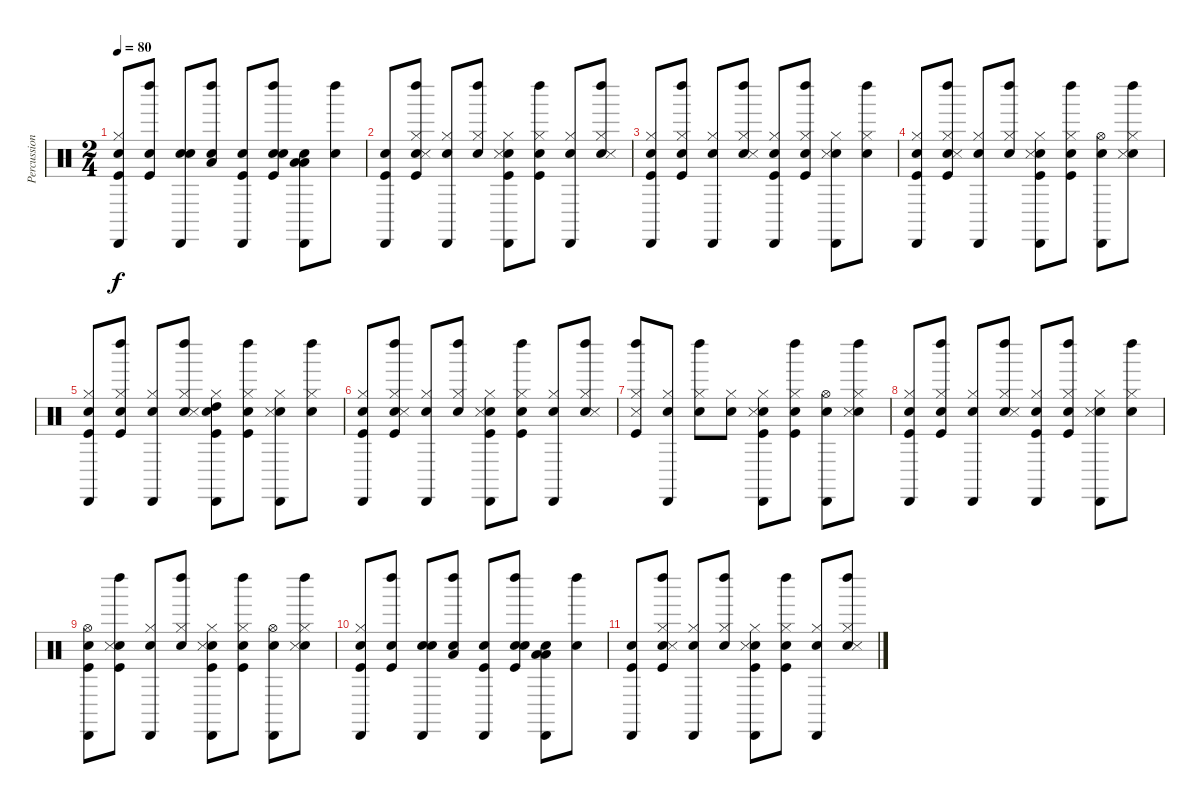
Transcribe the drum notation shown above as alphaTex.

\track ("Percussions" "Percussion") {instrument percussion}
\staff {score}
\articulation defaults
\ts (2 4)
\tempo 80
\clef neutral
\ks c
("Snare (hit)" "Kick (hit)" "Hi-Hat (closed)" "Cabasa (hit)").8{dy f} ("Snare (hit)" "Kick (hit)" "Left Maraca (hit)").8 ("Snare (hit)" "Snare (hit) 2" "Cabasa (hit)").8 ("Snare (hit)" "Low Tom (hit)" "Left Maraca (hit)").8 ("Snare (hit)" "Kick (hit)" "Cabasa (hit)").8 ("Snare (hit)" "Kick (hit)" "Snare (hit) 2" "Left Maraca (hit)").8 ("Snare (hit)" "Low Floor Tom (hit)" "Low Tom (hit)" "Cabasa (hit)").8 ("Snare (hit)" "Left Maraca (hit)").8 |
("Snare (hit)" "Kick (hit)" "Cabasa (hit)").8 ("Snare (hit)" "Kick (hit)" "Hi-Hat (closed)" "Snare (side stick) 3" "Left Maraca (hit)").8 ("Snare (hit)" "Hi-Hat (closed)" "Cabasa (hit)").8 ("Snare (hit)" "Hi-Hat (closed)" "Left Maraca (hit)").8 ("Snare (hit)" "Kick (hit)" "Hi-Hat (closed)" "Snare (side stick) 3" "Cabasa (hit)").8 ("Snare (hit)" "Kick (hit)" "Hi-Hat (closed)" "Left Maraca (hit)").8 ("Snare (hit)" "Hi-Hat (closed)" "Cabasa (hit)").8 ("Snare (hit)" "Hi-Hat (closed)" "Snare (side stick) 3" "Left Maraca (hit)").8 |
("Snare (hit)" "Kick (hit)" "Hi-Hat (closed)" "Cabasa (hit)").8 ("Snare (hit)" "Kick (hit)" "Hi-Hat (closed)" "Left Maraca (hit)").8 ("Snare (hit)" "Hi-Hat (closed)" "Cabasa (hit)").8 ("Snare (hit)" "Hi-Hat (closed)" "Snare (side stick) 3" "Left Maraca (hit)").8 ("Snare (hit)" "Kick (hit)" "Hi-Hat (closed)" "Cabasa (hit)").8 ("Snare (hit)" "Kick (hit)" "Hi-Hat (closed)" "Left Maraca (hit)").8 ("Snare (hit)" "Hi-Hat (closed)" "Snare (side stick) 3" "Cabasa (hit)").8 ("Snare (hit)" "Hi-Hat (closed)" "Left Maraca (hit)").8 |
("Snare (hit)" "Kick (hit)" "Hi-Hat (closed)" "Cabasa (hit)").8 ("Snare (hit)" "Kick (hit)" "Hi-Hat (closed)" "Snare (side stick) 3" "Left Maraca (hit)").8 ("Snare (hit)" "Hi-Hat (closed)" "Cabasa (hit)").8 ("Snare (hit)" "Hi-Hat (closed)" "Left Maraca (hit)").8 ("Snare (hit)" "Kick (hit)" "Hi-Hat (closed)" "Snare (side stick) 3" "Cabasa (hit)").8 ("Snare (hit)" "Kick (hit)" "Hi-Hat (closed)" "Left Maraca (hit)").8 ("Snare (hit)" "Hi-Hat (open)" "Cabasa (hit)").8 ("Snare (hit)" "Hi-Hat (closed)" "Snare (side stick) 3" "Left Maraca (hit)").8 |
("Snare (hit)" "Kick (hit)" "Hi-Hat (closed)" "Cabasa (hit)").8 ("Snare (hit)" "Kick (hit)" "Hi-Hat (closed)" "Left Maraca (hit)").8 ("Snare (hit)" "Hi-Hat (closed)" "Cabasa (hit)").8 ("Snare (hit)" "Hi-Hat (closed)" "Snare (side stick) 3" "Left Maraca (hit)").8 ("Snare (hit)" "Kick (hit)" "Hi-Hat (closed)" "High Tom (hit)" "Cabasa (hit)").8 ("Snare (hit)" "Kick (hit)" "Hi-Hat (closed)" "Left Maraca (hit)").8 ("Snare (hit)" "Hi-Hat (closed)" "Snare (side stick) 3" "Cabasa (hit)").8 ("Snare (hit)" "Hi-Hat (closed)" "Left Maraca (hit)").8 |
("Snare (hit)" "Kick (hit)" "Hi-Hat (closed)" "Cabasa (hit)").8 ("Snare (hit)" "Kick (hit)" "Hi-Hat (closed)" "Snare (side stick) 3" "Left Maraca (hit)").8 ("Snare (hit)" "Hi-Hat (closed)" "Cabasa (hit)").8 ("Snare (hit)" "Hi-Hat (closed)" "Left Maraca (hit)").8 ("Snare (hit)" "Kick (hit)" "Hi-Hat (closed)" "Snare (side stick) 3" "Cabasa (hit)").8 ("Snare (hit)" "Kick (hit)" "Hi-Hat (closed)" "Left Maraca (hit)").8 ("Snare (hit)" "Hi-Hat (closed)" "Cabasa (hit)").8 ("Snare (hit)" "Hi-Hat (closed)" "Snare (side stick) 3" "Left Maraca (hit)").8 |
("Kick (hit)" "Hi-Hat (closed)" "Snare (side stick) 3" "Left Maraca (hit)").8 ("Snare (hit)" "Hi-Hat (closed)" "Cabasa (hit)").8 ("Snare (hit)" "Hi-Hat (closed)" "Left Maraca (hit)").8 ("Snare (hit)" "Hi-Hat (closed)").8 ("Snare (hit)" "Kick (hit)" "Hi-Hat (closed)" "Snare (side stick) 3" "Cabasa (hit)").8 ("Snare (hit)" "Kick (hit)" "Hi-Hat (closed)" "Left Maraca (hit)").8 ("Snare (hit)" "Hi-Hat (open)" "Cabasa (hit)").8 ("Snare (hit)" "Hi-Hat (closed)" "Snare (side stick) 3" "Left Maraca (hit)").8 |
("Snare (hit)" "Kick (hit)" "Hi-Hat (closed)" "Cabasa (hit)").8 ("Snare (hit)" "Kick (hit)" "Hi-Hat (closed)" "Left Maraca (hit)").8 ("Snare (hit)" "Hi-Hat (closed)" "Cabasa (hit)").8 ("Snare (hit)" "Hi-Hat (closed)" "Snare (side stick) 3" "Left Maraca (hit)").8 ("Snare (hit)" "Kick (hit)" "Hi-Hat (closed)" "Cabasa (hit)").8 ("Snare (hit)" "Kick (hit)" "Hi-Hat (closed)" "Left Maraca (hit)").8 ("Snare (hit)" "Hi-Hat (closed)" "Snare (side stick) 3" "Cabasa (hit)").8 ("Snare (hit)" "Hi-Hat (closed)" "Left Maraca (hit)").8 |
("Snare (hit)" "Kick (hit)" "Hi-Hat (open)" "Cabasa (hit)").8 ("Snare (hit)" "Kick (hit)" "Snare (side stick) 3" "Left Maraca (hit)").8 ("Snare (hit)" "Hi-Hat (closed)" "Cabasa (hit)").8 ("Snare (hit)" "Hi-Hat (closed)" "Left Maraca (hit)").8 ("Snare (hit)" "Kick (hit)" "Hi-Hat (closed)" "Snare (side stick) 3" "Cabasa (hit)").8 ("Snare (hit)" "Kick (hit)" "Hi-Hat (closed)" "Left Maraca (hit)").8 ("Snare (hit)" "Hi-Hat (open)" "Cabasa (hit)").8 ("Snare (hit)" "Hi-Hat (closed)" "Snare (side stick) 3" "Left Maraca (hit)").8 |
("Snare (hit)" "Kick (hit)" "Hi-Hat (closed)" "Cabasa (hit)").8 ("Snare (hit)" "Kick (hit)" "Left Maraca (hit)").8 ("Snare (hit)" "Snare (hit) 2" "Cabasa (hit)").8 ("Snare (hit)" "Low Tom (hit)" "Left Maraca (hit)").8 ("Snare (hit)" "Kick (hit)" "Cabasa (hit)").8 ("Snare (hit)" "Kick (hit)" "Snare (hit) 2" "Left Maraca (hit)").8 ("Snare (hit)" "Low Floor Tom (hit)" "Low Tom (hit)" "Cabasa (hit)").8 ("Snare (hit)" "Left Maraca (hit)").8 |
("Snare (hit)" "Kick (hit)" "Cabasa (hit)").8 ("Snare (hit)" "Kick (hit)" "Hi-Hat (closed)" "Snare (side stick) 3" "Left Maraca (hit)").8 ("Snare (hit)" "Hi-Hat (closed)" "Cabasa (hit)").8 ("Snare (hit)" "Hi-Hat (closed)" "Left Maraca (hit)").8 ("Snare (hit)" "Kick (hit)" "Hi-Hat (closed)" "Snare (side stick) 3" "Cabasa (hit)").8 ("Snare (hit)" "Kick (hit)" "Hi-Hat (closed)" "Left Maraca (hit)").8 ("Snare (hit)" "Hi-Hat (closed)" "Cabasa (hit)").8 ("Snare (hit)" "Hi-Hat (closed)" "Snare (side stick) 3" "Left Maraca (hit)").8
